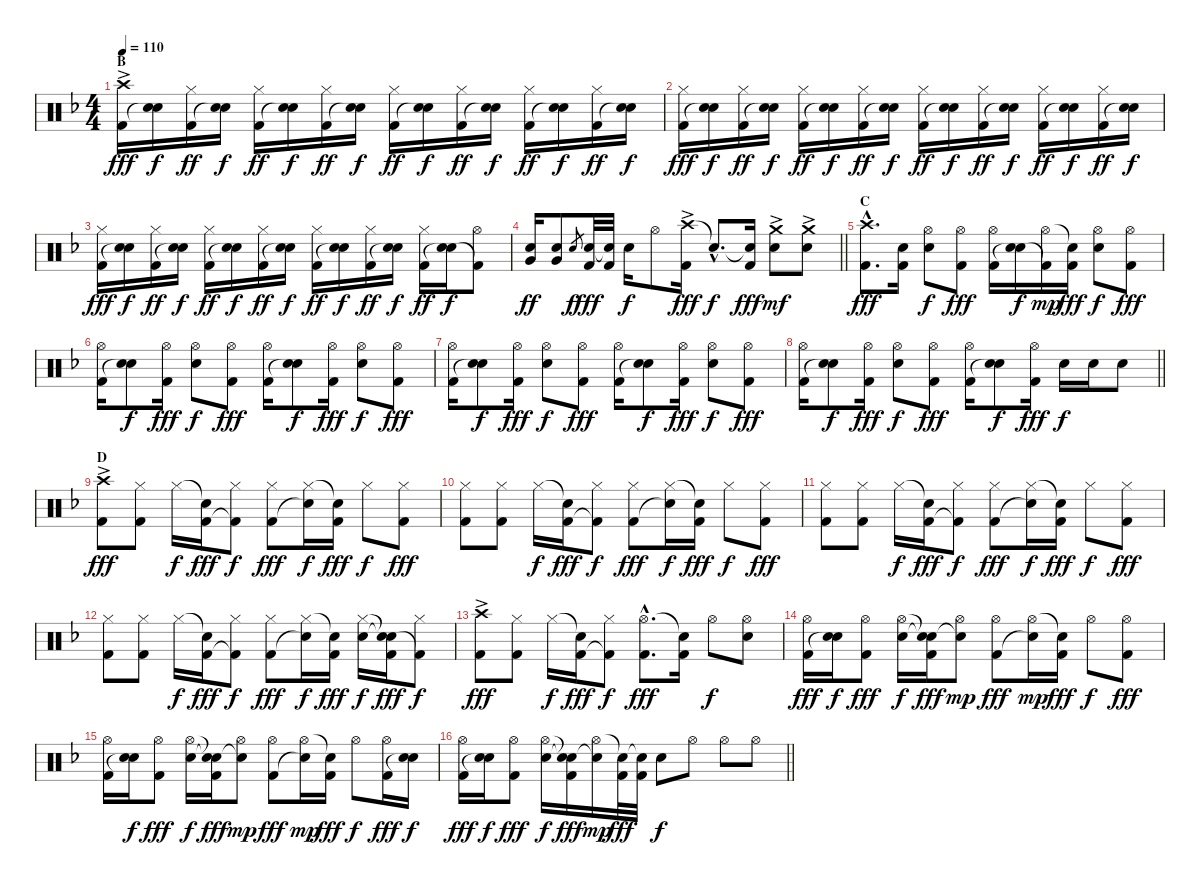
\track "" {instrument percussion}
\staff {score}
\articulation defaults
\ts (4 4)
\section ("" "B")
\tempo 110
\clef neutral
\ks dminor
("Crash high (hit)"{ac} "Kick (hit) 2").16{dy fff} ("Electric Snare (hit)" "Snare (hit)"{t}).16{dy f} ("Hi-Hat (closed)" "Kick (hit) 2").16{dy ff} ("Electric Snare (hit)" "Snare (hit)"{t}).16{dy f} ("Hi-Hat (closed)" "Kick (hit) 2").16{dy ff} ("Electric Snare (hit)" "Snare (hit)"{t}).16{dy f} ("Hi-Hat (closed)" "Kick (hit) 2").16{dy ff} ("Electric Snare (hit)" "Snare (hit)"{t}).16{dy f} ("Hi-Hat (closed)" "Kick (hit) 2").16{dy ff} ("Electric Snare (hit)" "Snare (hit)"{t}).16{dy f} ("Hi-Hat (closed)" "Kick (hit) 2").16{dy ff} ("Electric Snare (hit)" "Snare (hit)"{t}).16{dy f} ("Hi-Hat (closed)" "Kick (hit) 2").16{dy ff} ("Electric Snare (hit)" "Snare (hit)"{t}).16{dy f} ("Hi-Hat (closed)" "Kick (hit) 2").16{dy ff} ("Electric Snare (hit)" "Snare (hit)"{t}).16{dy f} |
("Hi-Hat (closed)" "Kick (hit) 2").16{dy fff} ("Electric Snare (hit)" "Snare (hit)"{t}).16{dy f} ("Hi-Hat (closed)" "Kick (hit) 2").16{dy ff} ("Electric Snare (hit)" "Snare (hit)"{t}).16{dy f} ("Hi-Hat (closed)" "Kick (hit) 2").16{dy ff} ("Electric Snare (hit)" "Snare (hit)"{t}).16{dy f} ("Hi-Hat (closed)" "Kick (hit) 2").16{dy ff} ("Electric Snare (hit)" "Snare (hit)"{t}).16{dy f} ("Hi-Hat (closed)" "Kick (hit) 2").16{dy ff} ("Electric Snare (hit)" "Snare (hit)"{t}).16{dy f} ("Hi-Hat (closed)" "Kick (hit) 2").16{dy ff} ("Electric Snare (hit)" "Snare (hit)"{t}).16{dy f} ("Hi-Hat (closed)" "Kick (hit) 2").16{dy ff} ("Electric Snare (hit)" "Snare (hit)"{t}).16{dy f} ("Hi-Hat (closed)" "Kick (hit) 2").16{dy ff} ("Electric Snare (hit)" "Snare (hit)"{t}).16{dy f} |
("Hi-Hat (closed)" "Kick (hit) 2").16{dy fff} ("Electric Snare (hit)" "Snare (hit)"{t}).16{dy f} ("Hi-Hat (closed)" "Kick (hit) 2").16{dy ff} ("Electric Snare (hit)" "Snare (hit)"{t}).16{dy f} ("Hi-Hat (closed)" "Kick (hit) 2").16{dy ff} ("Electric Snare (hit)" "Snare (hit)"{t}).16{dy f} ("Hi-Hat (closed)" "Kick (hit) 2").16{dy ff} ("Electric Snare (hit)" "Snare (hit)"{t}).16{dy f} ("Hi-Hat (closed)" "Kick (hit) 2").16{dy ff} ("Electric Snare (hit)" "Snare (hit)"{t}).16{dy f} ("Hi-Hat (closed)" "Kick (hit) 2").16{dy ff} ("Electric Snare (hit)" "Snare (hit)"{t}).16{dy f} ("Hi-Hat (closed)" "Kick (hit) 2").16{dy ff} ("Electric Snare (hit)" "Snare (hit)"{t}).16{dy f} ("Hi-Hat (open)" "Kick (hit) 2"{t}).8 |
\barLineRight lightlight
("Electric Snare (hit)" "Very Low Tom (hit)").16{dy ff} ("Electric Snare (hit)" "Very Low Tom (hit)").8 "Electric Snare (hit)".8{gr dy f} ("Electric Snare (hit)" "Kick (hit) 2").32{dy fff} ("Snare (hit)"{t} "Kick (hit) 2").32 "Electric Snare (hit)".16{dy f} "Hi-Hat (open)".8 ("Crash high (hit)"{ac} "Kick (hit) 2").16{dy fff} "Snare (hit)"{hac t}.8{d dy f} ("Snare (hit)"{t} "Kick (hit) 2").16{dy fff} ("Crash medium (hit)"{ac} "Electric Snare (hit)").8{dy mf} ("Crash medium (hit)"{ac} "Electric Snare (hit)").8 |
\section ("" "C")
("Crash high (hit)"{hac} "Kick (hit) 2"{hac}).8{d dy fff} ("Electric Snare (hit)" "Kick (hit) 2").16 ("Hi-Hat (open)" "Electric Snare (hit)").8{dy f} ("Hi-Hat (open)" "Kick (hit) 2").8{dy fff} ("Hi-Hat (open)" "Kick (hit) 2").16 ("Electric Snare (hit)" "Snare (hit)"{t}).16{dy f} ("Hi-Hat (open)" "Kick (hit) 2"{t}).16{dy mp} ("Snare (hit)"{t} "Kick (hit) 2").16{dy fff} ("Hi-Hat (open)" "Electric Snare (hit)").8{dy f} ("Hi-Hat (open)" "Kick (hit) 2").8{dy fff} |
("Hi-Hat (open)" "Kick (hit) 2").16 ("Electric Snare (hit)" "Snare (hit)"{t}).8{dy f} ("Hi-Hat (open)" "Kick (hit) 2").16{dy fff} ("Hi-Hat (open)" "Electric Snare (hit)").8{dy f} ("Hi-Hat (open)" "Kick (hit) 2").8{dy fff} ("Hi-Hat (open)" "Kick (hit) 2").16 ("Electric Snare (hit)" "Snare (hit)"{t}).8{dy f} ("Hi-Hat (open)" "Kick (hit) 2").16{dy fff} ("Hi-Hat (open)" "Electric Snare (hit)").8{dy f} ("Hi-Hat (open)" "Kick (hit) 2").8{dy fff} |
("Hi-Hat (open)" "Kick (hit) 2").16 ("Electric Snare (hit)" "Snare (hit)"{t}).8{dy f} ("Hi-Hat (open)" "Kick (hit) 2").16{dy fff} ("Hi-Hat (open)" "Electric Snare (hit)").8{dy f} ("Hi-Hat (open)" "Kick (hit) 2").8{dy fff} ("Hi-Hat (open)" "Kick (hit) 2").16 ("Electric Snare (hit)" "Snare (hit)"{t}).8{dy f} ("Hi-Hat (open)" "Kick (hit) 2").16{dy fff} ("Hi-Hat (open)" "Electric Snare (hit)").8{dy f} ("Hi-Hat (open)" "Kick (hit) 2").8{dy fff} |
\barLineRight lightlight
("Hi-Hat (open)" "Kick (hit) 2").16 ("Electric Snare (hit)" "Snare (hit)"{t}).8{dy f} ("Hi-Hat (open)" "Kick (hit) 2").16{dy fff} ("Hi-Hat (open)" "Electric Snare (hit)").8{dy f} ("Hi-Hat (open)" "Kick (hit) 2").8{dy fff} ("Hi-Hat (open)" "Kick (hit) 2").16 ("Electric Snare (hit)" "Snare (hit)"{t}).8{dy f} ("Hi-Hat (open)" "Kick (hit) 2").16{dy fff} "Electric Snare (hit)".16{dy f} "Electric Snare (hit)".16 "Electric Snare (hit)".8 |
\section ("" "D")
("Crash high (hit)"{ac} "Kick (hit) 2").8{dy fff} ("Hi-Hat (closed)" "Kick (hit) 2").8 "Hi-Hat (closed)".16{dy f} ("Snare (hit)"{t} "Kick (hit) 2").16{dy fff} ("Hi-Hat (closed)" "Kick (hit) 2"{t}).8{dy f} ("Hi-Hat (closed)" "Kick (hit) 2").8{dy fff} ("Hi-Hat (closed)" "Snare (hit)"{t}).16{dy f} ("Snare (hit)"{t} "Kick (hit) 2").16{dy fff} "Hi-Hat (closed)".8{dy f} ("Hi-Hat (closed)" "Kick (hit) 2").8{dy fff} |
("Hi-Hat (closed)" "Kick (hit) 2").8 ("Hi-Hat (closed)" "Kick (hit) 2").8 "Hi-Hat (closed)".16{dy f} ("Snare (hit)"{t} "Kick (hit) 2").16{dy fff} ("Hi-Hat (closed)" "Kick (hit) 2"{t}).8{dy f} ("Hi-Hat (closed)" "Kick (hit) 2").8{dy fff} ("Hi-Hat (closed)" "Snare (hit)"{t}).16{dy f} ("Snare (hit)"{t} "Kick (hit) 2").16{dy fff} "Hi-Hat (closed)".8{dy f} ("Hi-Hat (closed)" "Kick (hit) 2").8{dy fff} |
("Hi-Hat (closed)" "Kick (hit) 2").8 ("Hi-Hat (closed)" "Kick (hit) 2").8 "Hi-Hat (closed)".16{dy f} ("Snare (hit)"{t} "Kick (hit) 2").16{dy fff} ("Hi-Hat (closed)" "Kick (hit) 2"{t}).8{dy f} ("Hi-Hat (closed)" "Kick (hit) 2").8{dy fff} ("Hi-Hat (closed)" "Snare (hit)"{t}).16{dy f} ("Snare (hit)"{t} "Kick (hit) 2").16{dy fff} "Hi-Hat (closed)".8{dy f} ("Hi-Hat (closed)" "Kick (hit) 2").8{dy fff} |
("Hi-Hat (closed)" "Kick (hit) 2").8 ("Hi-Hat (closed)" "Kick (hit) 2").8 "Hi-Hat (closed)".16{dy f} ("Snare (hit)"{t} "Kick (hit) 2").16{dy fff} ("Hi-Hat (closed)" "Kick (hit) 2"{t}).8{dy f} ("Hi-Hat (closed)" "Kick (hit) 2").8{dy fff} ("Hi-Hat (closed)" "Snare (hit)"{t}).16{dy f} ("Snare (hit)"{t} "Kick (hit) 2").16{dy fff} ("Hi-Hat (closed)" "Electric Snare (hit)").16{dy f} ("Snare (hit)"{t} "Snare (hit)"{t} "Kick (hit) 2").16{dy fff} ("Hi-Hat (closed)" "Kick (hit) 2"{t}).8{dy f} |
("Crash high (hit)"{ac} "Kick (hit) 2").8{dy fff} ("Hi-Hat (closed)" "Kick (hit) 2").8 "Hi-Hat (closed)".16{dy f} ("Snare (hit)"{t} "Kick (hit) 2").16{dy fff} ("Hi-Hat (closed)" "Kick (hit) 2"{t}).8{dy f} ("Hi-Hat (open)"{hac} "Kick (hit) 2"{hac}).8{d dy fff} ("Snare (hit)"{t} "Kick (hit) 2").16 "Hi-Hat (open)".8{dy f} ("Hi-Hat (open)" "Electric Snare (hit)").8 |
("Hi-Hat (open)" "Kick (hit) 2").16{dy fff} ("Electric Snare (hit)" "Snare (hit)"{t}).16{dy f} ("Hi-Hat (open)" "Kick (hit) 2").8{dy fff} ("Hi-Hat (open)" "Electric Snare (hit)").16{dy f} ("Snare (hit)"{t} "Snare (hit)"{t} "Kick (hit) 2").16{dy fff} ("Hi-Hat (open)" "Snare (hit)"{t}).8{dy mp} ("Hi-Hat (open)" "Kick (hit) 2").8{dy fff} ("Hi-Hat (open)" "Snare (hit)"{t}).16{dy mp} ("Snare (hit)"{t} "Kick (hit) 2").16{dy fff} "Hi-Hat (open)".8{dy f} ("Hi-Hat (open)" "Kick (hit) 2").8{dy fff} |
("Hi-Hat (open)" "Kick (hit) 2").16 ("Electric Snare (hit)" "Snare (hit)"{t}).16{dy f} ("Hi-Hat (open)" "Kick (hit) 2").8{dy fff} ("Hi-Hat (open)" "Electric Snare (hit)").16{dy f} ("Snare (hit)"{t} "Snare (hit)"{t} "Kick (hit) 2").16{dy fff} ("Hi-Hat (open)" "Snare (hit)"{t}).8{dy mp} ("Hi-Hat (open)" "Kick (hit) 2").8{dy fff} ("Hi-Hat (open)" "Snare (hit)"{t}).16{dy mp} ("Snare (hit)"{t} "Kick (hit) 2").16{dy fff} "Hi-Hat (open)".8{dy f} ("Hi-Hat (open)" "Kick (hit) 2").16{dy fff} ("Electric Snare (hit)" "Snare (hit)"{t}).16{dy f} |
\barLineRight lightlight
("Hi-Hat (open)" "Kick (hit) 2").16{dy fff} ("Electric Snare (hit)" "Snare (hit)"{t}).16{dy f} ("Hi-Hat (open)" "Kick (hit) 2").8{dy fff} ("Hi-Hat (open)" "Electric Snare (hit)").16{dy f} ("Snare (hit)"{t} "Snare (hit)"{t} "Kick (hit) 2").16{dy fff} ("Hi-Hat (open)" "Snare (hit)"{t}).16{dy mp} ("Snare (hit)"{t} "Kick (hit) 2").32{dy fff} ("Snare (hit)"{t} "Kick (hit) 2").32 "Electric Snare (hit)".8{dy f} "Hi-Hat (open)".8 "Hi-Hat (open)".8 "Hi-Hat (open)".8
